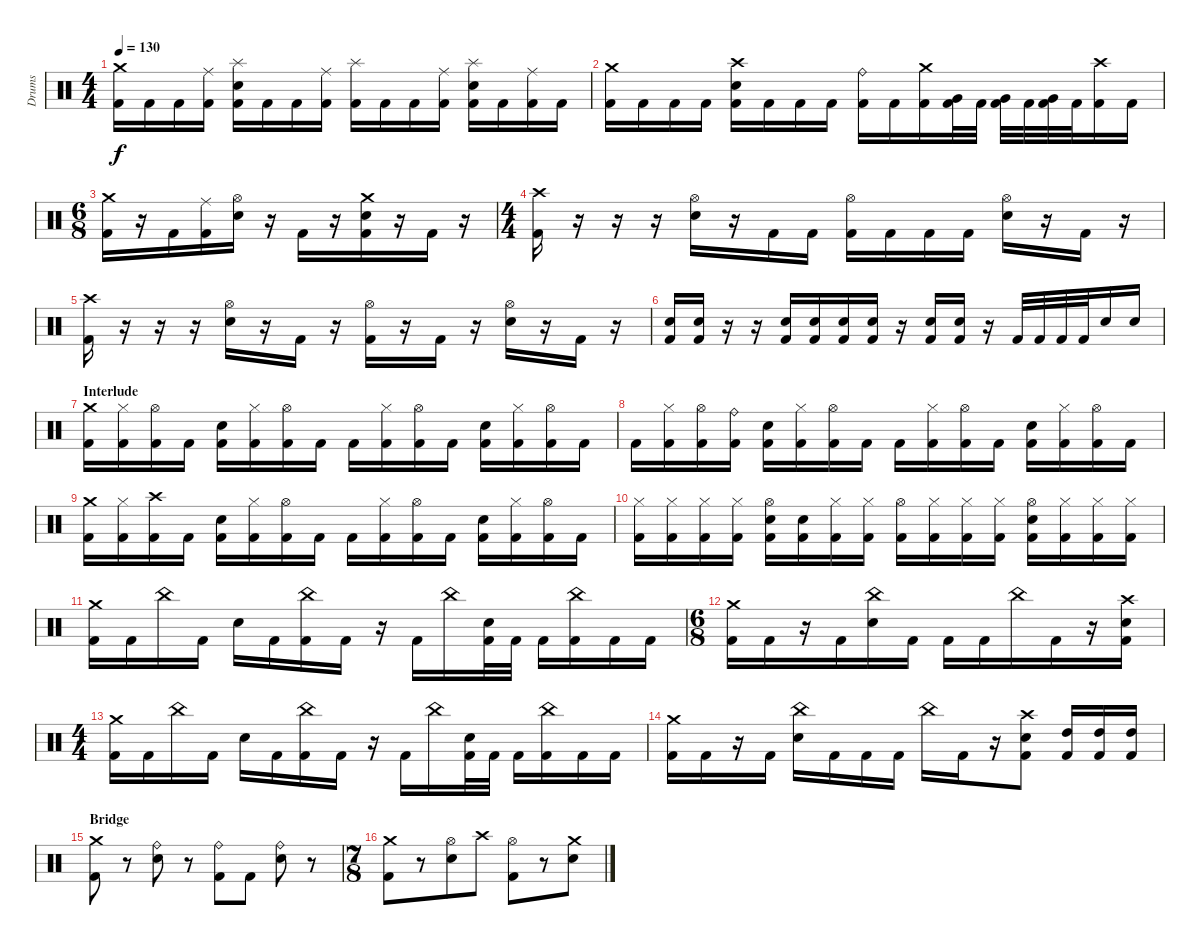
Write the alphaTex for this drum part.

\track ("Drums" "Drums") {instrument percussion}
\staff {score}
\articulation defaults
\ts (4 4)
\tempo 130
\clef neutral
\ks c
("Crash medium (hit)" "Kick (hit) 2").16{dy f} "Kick (hit) 2".16 "Kick (hit) 2".16 ("Ride (middle)" "Kick (hit) 2").16 ("Splash (hit)" "Electric Snare (hit)" "Kick (hit) 2").16 "Kick (hit) 2".16 "Kick (hit) 2".16 ("Ride (middle)" "Kick (hit) 2").16 ("Splash (hit)" "Kick (hit) 2").16 "Kick (hit) 2".16 "Kick (hit) 2".16 ("Ride (middle)" "Kick (hit) 2").16 ("Splash (hit)" "Electric Snare (hit)" "Kick (hit) 2").16 "Kick (hit) 2".16 ("Ride (middle)" "Kick (hit) 2").16 "Kick (hit) 2".16 |
("Crash medium (hit)" "Kick (hit) 2").16 "Kick (hit) 2".16 "Kick (hit) 2".16 "Kick (hit) 2".16 ("Crash high (hit)" "Electric Snare (hit)" "Kick (hit) 2").16 "Kick (hit) 2".16 "Kick (hit) 2".16 "Kick (hit) 2".16 ("Ride (bell)" "Kick (hit) 2").16 "Kick (hit) 2".16 ("Crash medium (hit)" "Kick (hit) 2").16 ("Very Low Tom (hit)" "Kick (hit) 2").32 "Kick (hit) 2".32 ("Very Low Tom (hit)" "Kick (hit) 2").32 "Kick (hit) 2".32 ("Very Low Tom (hit)" "Kick (hit) 2").32 "Kick (hit) 2".32 ("Crash high (hit)" "Kick (hit) 2").16 "Kick (hit) 2".16 |
\ts (6 8)
("Crash medium (hit)" "Kick (hit) 2").16 r.16 "Kick (hit) 2".16 ("Ride (middle)" "Kick (hit) 2").16 ("Hi-Hat (open)" "Electric Snare (hit)").16 r.16 "Kick (hit) 2".16 r.16 ("Crash medium (hit)" "Electric Snare (hit)" "Kick (hit) 2").16 r.16 "Kick (hit) 2".16 r.16 |
\ts (4 4)
("Crash high (hit)" "Kick (hit) 2").16 r.16 r.16 r.16 ("Hi-Hat (open)" "Electric Snare (hit)").16 r.16 "Kick (hit) 2".16 "Kick (hit) 2".16 ("Hi-Hat (open)" "Kick (hit) 2").16 "Kick (hit) 2".16 "Kick (hit) 2".16 "Kick (hit) 2".16 ("Hi-Hat (open)" "Electric Snare (hit)").16 r.16 "Kick (hit) 2".16 r.16 |
("Crash high (hit)" "Kick (hit) 2").16 r.16 r.16 r.16 ("Hi-Hat (open)" "Electric Snare (hit)").16 r.16 "Kick (hit) 2".16 r.16 ("Hi-Hat (open)" "Kick (hit) 2").16 r.16 "Kick (hit) 2".16 r.16 ("Hi-Hat (open)" "Electric Snare (hit)").16 r.16 "Kick (hit) 2".16 r.16 |
("Electric Snare (hit)" "Kick (hit) 2").16 ("Electric Snare (hit)" "Kick (hit) 2").16 r.16 r.16 ("Electric Snare (hit)" "Kick (hit) 2").16 ("Electric Snare (hit)" "Kick (hit) 2").16 ("Electric Snare (hit)" "Kick (hit) 2").16 ("Electric Snare (hit)" "Kick (hit) 2").16 r.16 ("Electric Snare (hit)" "Kick (hit) 2").16 ("Electric Snare (hit)" "Kick (hit) 2").16 r.16 "Kick (hit) 2".32 "Kick (hit) 2".32 "Kick (hit) 2".32 "Kick (hit) 2".32 "Electric Snare (hit)".16 "Electric Snare (hit)".16 |
\section ("" "Interlude")
("Crash medium (hit)" "Kick (hit) 2").16 ("Hi-Hat (closed)" "Kick (hit) 2").16 ("Hi-Hat (open)" "Kick (hit) 2").16 "Kick (hit) 2".16 ("Electric Snare (hit)" "Kick (hit) 2").16 ("Hi-Hat (closed)" "Kick (hit) 2").16 ("Hi-Hat (open)" "Kick (hit) 2").16 "Kick (hit) 2".16 "Kick (hit) 2".16 ("Hi-Hat (closed)" "Kick (hit) 2").16 ("Hi-Hat (open)" "Kick (hit) 2").16 "Kick (hit) 2".16 ("Electric Snare (hit)" "Kick (hit) 2").16 ("Hi-Hat (closed)" "Kick (hit) 2").16 ("Hi-Hat (open)" "Kick (hit) 2").16 "Kick (hit) 2".16 |
"Kick (hit) 2".16 ("Hi-Hat (closed)" "Kick (hit) 2").16 ("Hi-Hat (open)" "Kick (hit) 2").16 ("Ride (bell)" "Kick (hit) 2").16 ("Electric Snare (hit)" "Kick (hit) 2").16 ("Hi-Hat (closed)" "Kick (hit) 2").16 ("Hi-Hat (open)" "Kick (hit) 2").16 "Kick (hit) 2".16 "Kick (hit) 2".16 ("Hi-Hat (closed)" "Kick (hit) 2").16 ("Hi-Hat (open)" "Kick (hit) 2").16 "Kick (hit) 2".16 ("Electric Snare (hit)" "Kick (hit) 2").16 ("Hi-Hat (closed)" "Kick (hit) 2").16 ("Hi-Hat (open)" "Kick (hit) 2").16 "Kick (hit) 2".16 |
("Crash medium (hit)" "Kick (hit) 2").16 ("Hi-Hat (closed)" "Kick (hit) 2").16 ("Crash high (hit)" "Kick (hit) 2").16 "Kick (hit) 2".16 ("Electric Snare (hit)" "Kick (hit) 2").16 ("Hi-Hat (closed)" "Kick (hit) 2").16 ("Hi-Hat (open)" "Kick (hit) 2").16 "Kick (hit) 2".16 "Kick (hit) 2".16 ("Hi-Hat (closed)" "Kick (hit) 2").16 ("Hi-Hat (open)" "Kick (hit) 2").16 "Kick (hit) 2".16 ("Electric Snare (hit)" "Kick (hit) 2").16 ("Hi-Hat (closed)" "Kick (hit) 2").16 ("Hi-Hat (open)" "Kick (hit) 2").16 "Kick (hit) 2".16 |
("Hi-Hat (closed)" "Kick (hit) 2").16 ("Hi-Hat (closed)" "Kick (hit) 2").16 ("Hi-Hat (closed)" "Kick (hit) 2").16 ("Hi-Hat (closed)" "Kick (hit) 2").16 ("Hi-Hat (open)" "Electric Snare (hit)" "Kick (hit) 2").16 ("Snare (hit)" "Kick (hit) 2").16 ("Hi-Hat (closed)" "Kick (hit) 2").16 ("Hi-Hat (closed)" "Kick (hit) 2").16 ("Hi-Hat (open)" "Kick (hit) 2").16 ("Hi-Hat (closed)" "Kick (hit) 2").16 ("Hi-Hat (closed)" "Kick (hit) 2").16 ("Hi-Hat (closed)" "Kick (hit) 2").16 ("Hi-Hat (open)" "Electric Snare (hit)" "Kick (hit) 2").16 ("Hi-Hat (closed)" "Kick (hit) 2").16 ("Hi-Hat (closed)" "Kick (hit) 2").16 ("Hi-Hat (closed)" "Kick (hit) 2").16 |
("Crash medium (hit)" "Kick (hit) 2").16 "Kick (hit) 2".16 "China (hit)".16 "Kick (hit) 2".16 "Electric Snare (hit)".16 "Kick (hit) 2".16 ("China (hit)" "Kick (hit) 2").16 "Kick (hit) 2".16 r.16 "Kick (hit) 2".16 "China (hit)".16 ("Electric Snare (hit)" "Kick (hit) 2").32 "Kick (hit) 2".32 "Kick (hit) 2".16 ("China (hit)" "Kick (hit) 2").16 "Kick (hit) 2".16 "Kick (hit) 2".16 |
\ts (6 8)
("Crash medium (hit)" "Kick (hit) 2").16 "Kick (hit) 2".16 r.16 "Kick (hit) 2".16 ("China (hit)" "Electric Snare (hit)").16 "Kick (hit) 2".16 "Kick (hit) 2".16 "Kick (hit) 2".16 "China (hit)".16 "Kick (hit) 2".16 r.16 ("Crash high (hit)" "Electric Snare (hit)" "Kick (hit) 2").16 |
\ts (4 4)
("Crash medium (hit)" "Kick (hit) 2").16 "Kick (hit) 2".16 "China (hit)".16 "Kick (hit) 2".16 "Electric Snare (hit)".16 "Kick (hit) 2".16 ("China (hit)" "Kick (hit) 2").16 "Kick (hit) 2".16 r.16 "Kick (hit) 2".16 "China (hit)".16 ("Electric Snare (hit)" "Kick (hit) 2").32 "Kick (hit) 2".32 "Kick (hit) 2".16 ("China (hit)" "Kick (hit) 2").16 "Kick (hit) 2".16 "Kick (hit) 2".16 |
("Crash medium (hit)" "Kick (hit) 2").16 "Kick (hit) 2".16 r.16 "Kick (hit) 2".16 ("China (hit)" "Electric Snare (hit)").16 "Kick (hit) 2".16 "Kick (hit) 2".16 "Kick (hit) 2".16 "China (hit)".16 "Kick (hit) 2".16 r.16 ("Crash high (hit)" "Electric Snare (hit)" "Kick (hit) 2").8 ("High Tom (hit)" "Kick (hit) 2").16 ("High Tom (hit)" "Kick (hit) 2").16 ("High Tom (hit)" "Kick (hit) 2").16 |
\section ("" "Bridge")
("Crash medium (hit)" "Kick (hit) 2").8 r.8 ("Ride (bell)" "Electric Snare (hit)").8 r.8 ("Ride (bell)" "Kick (hit) 2").8 "Kick (hit) 2".8 ("Ride (bell)" "Electric Snare (hit)").8 r.8 |
\ts (7 8)
("Crash medium (hit)" "Kick (hit) 2").8 r.8 ("Hi-Hat (open)" "Electric Snare (hit)").8 "Crash high (hit)".8 ("Hi-Hat (open)" "Kick (hit) 2").8 r.8 ("Crash medium (hit)" "Electric Snare (hit)").8
